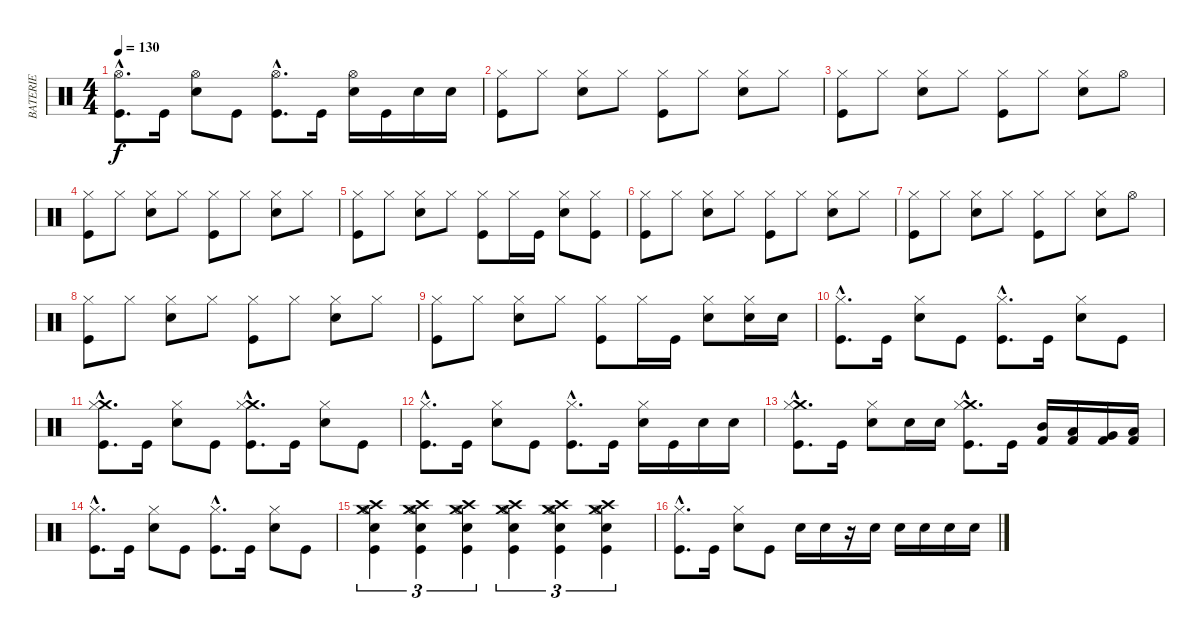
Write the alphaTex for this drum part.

\track ("BATERIE" "BATERIE") {instrument percussion}
\staff {score}
\articulation defaults
\ts (4 4)
\tempo 130
\clef neutral
\ks c
("Hi-Hat (open)"{hac} "Kick (hit)"{hac}).8{d dy f} "Kick (hit)".16 ("Hi-Hat (open)" "Snare (hit) 2").8 "Kick (hit)".8 ("Hi-Hat (open)"{hac} "Kick (hit)"{hac}).8{d} "Kick (hit)".16 ("Hi-Hat (open)" "Snare (hit) 2").16 "Kick (hit)".16 "Snare (hit) 2".16 "Snare (hit) 2".16 |
("Hi-Hat (closed)" "Kick (hit)").8 "Hi-Hat (closed)".8 ("Hi-Hat (closed)" "Snare (hit) 2").8 "Hi-Hat (closed)".8 ("Hi-Hat (closed)" "Kick (hit)").8 "Hi-Hat (closed)".8 ("Hi-Hat (closed)" "Snare (hit) 2").8 "Hi-Hat (closed)".8 |
("Hi-Hat (closed)" "Kick (hit)").8 "Hi-Hat (closed)".8 ("Hi-Hat (closed)" "Snare (hit) 2").8 "Hi-Hat (closed)".8 ("Hi-Hat (closed)" "Kick (hit)").8 "Hi-Hat (closed)".8 ("Hi-Hat (closed)" "Snare (hit) 2").8 "Hi-Hat (open)".8 |
("Hi-Hat (closed)" "Kick (hit)").8 "Hi-Hat (closed)".8 ("Hi-Hat (closed)" "Snare (hit) 2").8 "Hi-Hat (closed)".8 ("Hi-Hat (closed)" "Kick (hit)").8 "Hi-Hat (closed)".8 ("Hi-Hat (closed)" "Snare (hit) 2").8 "Hi-Hat (closed)".8 |
("Hi-Hat (closed)" "Kick (hit)").8 "Hi-Hat (closed)".8 ("Hi-Hat (closed)" "Snare (hit) 2").8 "Hi-Hat (closed)".8 ("Hi-Hat (closed)" "Kick (hit)").8 "Hi-Hat (closed)".16 "Kick (hit)".16 ("Hi-Hat (closed)" "Snare (hit) 2").8 ("Hi-Hat (closed)" "Kick (hit)").8 |
("Hi-Hat (closed)" "Kick (hit)").8 "Hi-Hat (closed)".8 ("Hi-Hat (closed)" "Snare (hit) 2").8 "Hi-Hat (closed)".8 ("Hi-Hat (closed)" "Kick (hit)").8 "Hi-Hat (closed)".8 ("Hi-Hat (closed)" "Snare (hit) 2").8 "Hi-Hat (closed)".8 |
("Hi-Hat (closed)" "Kick (hit)").8 "Hi-Hat (closed)".8 ("Hi-Hat (closed)" "Snare (hit) 2").8 "Hi-Hat (closed)".8 ("Hi-Hat (closed)" "Kick (hit)").8 "Hi-Hat (closed)".8 ("Hi-Hat (closed)" "Snare (hit) 2").8 "Hi-Hat (open)".8 |
("Hi-Hat (closed)" "Kick (hit)").8 "Hi-Hat (closed)".8 ("Hi-Hat (closed)" "Snare (hit) 2").8 "Hi-Hat (closed)".8 ("Hi-Hat (closed)" "Kick (hit)").8 "Hi-Hat (closed)".8 ("Hi-Hat (closed)" "Snare (hit) 2").8 "Hi-Hat (closed)".8 |
("Hi-Hat (closed)" "Kick (hit)").8 "Hi-Hat (closed)".8 ("Hi-Hat (closed)" "Snare (hit) 2").8 "Hi-Hat (closed)".8 ("Hi-Hat (closed)" "Kick (hit)").8 "Hi-Hat (closed)".16 "Kick (hit)".16 ("Hi-Hat (closed)" "Snare (hit) 2").8 ("Hi-Hat (closed)" "Snare (hit) 2").16 "Snare (hit) 2".16 |
("Hi-Hat (closed)"{hac} "Kick (hit)"{hac}).8{d} "Kick (hit)".16 ("Hi-Hat (closed)" "Snare (hit) 2").8 "Kick (hit)".8 ("Hi-Hat (closed)"{hac} "Kick (hit)"{hac}).8{d} "Kick (hit)".16 ("Hi-Hat (closed)" "Snare (hit) 2").8 "Kick (hit)".8 |
("Crash medium (hit)"{hac} "Hi-Hat (closed)"{hac} "Kick (hit)"{hac}).8{d} "Kick (hit)".16 ("Hi-Hat (closed)" "Snare (hit) 2").8 "Kick (hit)".8 ("Crash medium (hit)"{hac} "Hi-Hat (closed)"{hac} "Kick (hit)"{hac}).8{d} "Kick (hit)".16 ("Hi-Hat (closed)" "Snare (hit) 2").8 "Kick (hit)".8 |
("Hi-Hat (closed)"{hac} "Kick (hit)"{hac}).8{d} "Kick (hit)".16 ("Hi-Hat (closed)" "Snare (hit) 2").8 "Kick (hit)".8 ("Hi-Hat (closed)"{hac} "Kick (hit)"{hac}).8{d} "Kick (hit)".16 ("Hi-Hat (closed)" "Snare (hit) 2").16 "Kick (hit)".16 "Snare (hit) 2".16 "Snare (hit) 2".16 |
("Crash medium (hit)"{hac} "Hi-Hat (closed)"{hac} "Kick (hit)"{hac}).8{d} "Kick (hit)".16 ("Hi-Hat (closed)" "Snare (hit) 2").8 "Snare (hit) 2".16 "Snare (hit) 2".16 ("Crash medium (hit)"{hac} "Hi-Hat (closed)"{hac} "Kick (hit)"{hac}).8{d} "Kick (hit)".16 ("Mid Tom (hit)" "Kick (hit) 2").16 ("Low Tom (hit)" "Kick (hit) 2").16 ("Very Low Tom (hit)" "Kick (hit) 2").16 ("Low Floor Tom (hit)" "Kick (hit) 2").16 |
("Hi-Hat (closed)"{hac} "Kick (hit)"{hac}).8{d} "Kick (hit)".16 ("Hi-Hat (closed)" "Snare (hit) 2").8 "Kick (hit)".8 ("Hi-Hat (closed)"{hac} "Kick (hit)"{hac}).8{d} "Kick (hit)".16 ("Hi-Hat (closed)" "Snare (hit) 2").8 "Kick (hit)".8 |
("Snare (hit) 2" "Hi-Hat (open)" "Crash high (hit)" "Crash medium (hit)" "Kick (hit)").4{tu (3 2)} ("Snare (hit) 2" "Hi-Hat (open)" "Crash high (hit)" "Crash medium (hit)" "Kick (hit)").4{tu (3 2)} ("Snare (hit) 2" "Hi-Hat (open)" "Crash high (hit)" "Crash medium (hit)" "Kick (hit)").4{tu (3 2)} ("Snare (hit) 2" "Hi-Hat (open)" "Crash high (hit)" "Crash medium (hit)" "Kick (hit)").4{tu (3 2)} ("Snare (hit) 2" "Hi-Hat (open)" "Crash high (hit)" "Crash medium (hit)" "Kick (hit)").4{tu (3 2)} ("Snare (hit) 2" "Hi-Hat (open)" "Crash high (hit)" "Crash medium (hit)" "Kick (hit)").4{tu (3 2)} |
("Hi-Hat (closed)"{hac} "Kick (hit)"{hac}).8{d} "Kick (hit)".16 ("Hi-Hat (closed)" "Snare (hit) 2").8 "Kick (hit)".8 "Snare (hit) 2".16 "Snare (hit) 2".16 r.16 "Snare (hit) 2".16 "Snare (hit) 2".16 "Snare (hit) 2".16 "Snare (hit) 2".16 "Snare (hit) 2".16
